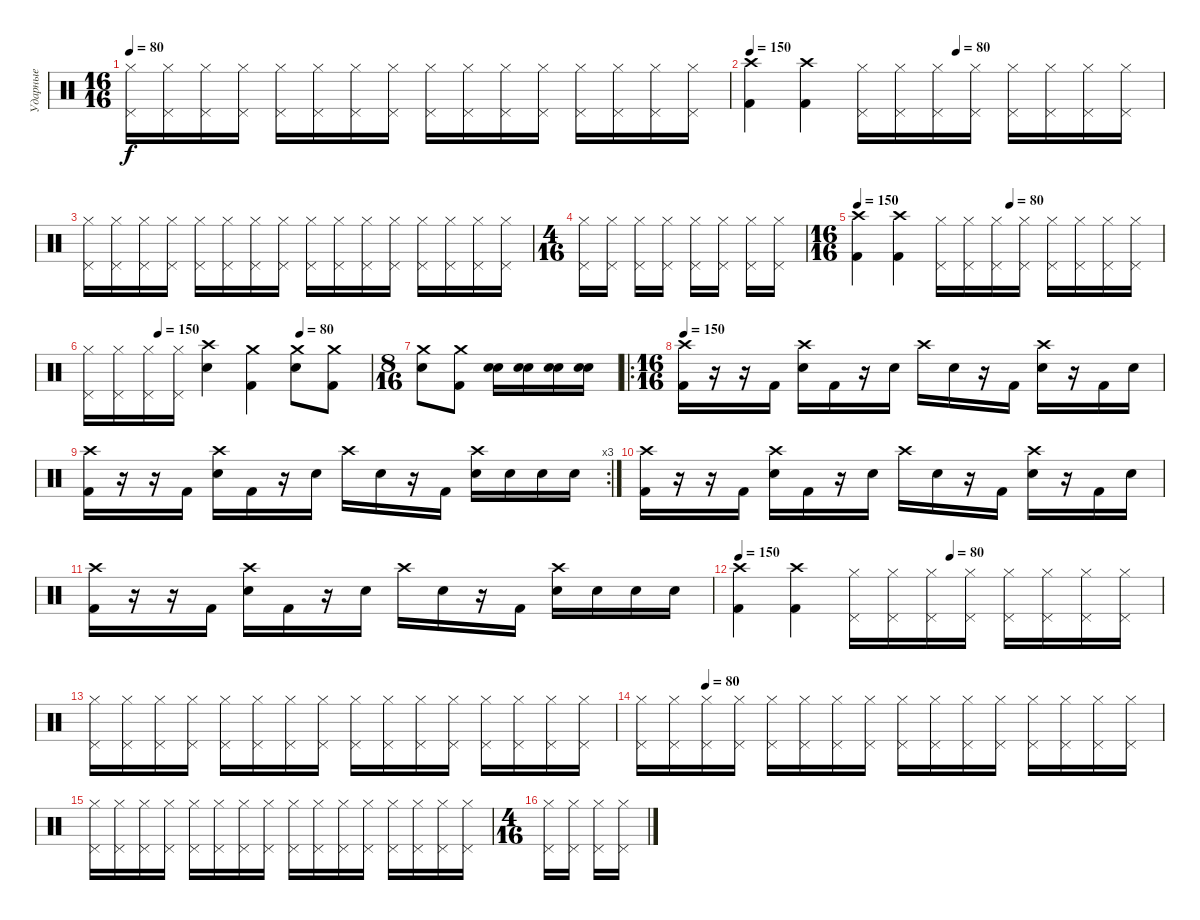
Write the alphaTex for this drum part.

\track ("Ударные" "Ударные") {instrument percussion}
\staff {score}
\articulation defaults
\ts (16 16)
\tempo 80
\clef neutral
\ks c
("Hi-Hat (closed)" "Pedal Hi-Hat (hit)").16{dy f} ("Hi-Hat (closed)" "Pedal Hi-Hat (hit)").16 ("Hi-Hat (closed)" "Pedal Hi-Hat (hit)").16 ("Hi-Hat (closed)" "Pedal Hi-Hat (hit)").16 ("Hi-Hat (closed)" "Pedal Hi-Hat (hit)").16 ("Hi-Hat (closed)" "Pedal Hi-Hat (hit)").16 ("Hi-Hat (closed)" "Pedal Hi-Hat (hit)").16 ("Hi-Hat (closed)" "Pedal Hi-Hat (hit)").16 ("Hi-Hat (closed)" "Pedal Hi-Hat (hit)").16 ("Hi-Hat (closed)" "Pedal Hi-Hat (hit)").16 ("Hi-Hat (closed)" "Pedal Hi-Hat (hit)").16 ("Hi-Hat (closed)" "Pedal Hi-Hat (hit)").16 ("Hi-Hat (closed)" "Pedal Hi-Hat (hit)").16 ("Hi-Hat (closed)" "Pedal Hi-Hat (hit)").16 ("Hi-Hat (closed)" "Pedal Hi-Hat (hit)").16 ("Hi-Hat (closed)" "Pedal Hi-Hat (hit)").16 |
\tempo 150
\tempo (80 0.5)
("Crash high (hit)" "Kick (hit) 2").4 ("Crash high (hit)" "Kick (hit) 2").4 ("Hi-Hat (closed)" "Pedal Hi-Hat (hit)").16 ("Hi-Hat (closed)" "Pedal Hi-Hat (hit)").16 ("Hi-Hat (closed)" "Pedal Hi-Hat (hit)").16 ("Hi-Hat (closed)" "Pedal Hi-Hat (hit)").16 ("Hi-Hat (closed)" "Pedal Hi-Hat (hit)").16 ("Hi-Hat (closed)" "Pedal Hi-Hat (hit)").16 ("Hi-Hat (closed)" "Pedal Hi-Hat (hit)").16 ("Hi-Hat (closed)" "Pedal Hi-Hat (hit)").16 |
("Hi-Hat (closed)" "Pedal Hi-Hat (hit)").16 ("Hi-Hat (closed)" "Pedal Hi-Hat (hit)").16 ("Hi-Hat (closed)" "Pedal Hi-Hat (hit)").16 ("Hi-Hat (closed)" "Pedal Hi-Hat (hit)").16 ("Hi-Hat (closed)" "Pedal Hi-Hat (hit)").16 ("Hi-Hat (closed)" "Pedal Hi-Hat (hit)").16 ("Hi-Hat (closed)" "Pedal Hi-Hat (hit)").16 ("Hi-Hat (closed)" "Pedal Hi-Hat (hit)").16 ("Hi-Hat (closed)" "Pedal Hi-Hat (hit)").16 ("Hi-Hat (closed)" "Pedal Hi-Hat (hit)").16 ("Hi-Hat (closed)" "Pedal Hi-Hat (hit)").16 ("Hi-Hat (closed)" "Pedal Hi-Hat (hit)").16 ("Hi-Hat (closed)" "Pedal Hi-Hat (hit)").16 ("Hi-Hat (closed)" "Pedal Hi-Hat (hit)").16 ("Hi-Hat (closed)" "Pedal Hi-Hat (hit)").16 ("Hi-Hat (closed)" "Pedal Hi-Hat (hit)").16 |
\ts (4 16)
("Hi-Hat (closed)" "Pedal Hi-Hat (hit)").16 ("Hi-Hat (closed)" "Pedal Hi-Hat (hit)").16 ("Hi-Hat (closed)" "Pedal Hi-Hat (hit)").16 ("Hi-Hat (closed)" "Pedal Hi-Hat (hit)").16 ("Hi-Hat (closed)" "Pedal Hi-Hat (hit)").16 ("Hi-Hat (closed)" "Pedal Hi-Hat (hit)").16 ("Hi-Hat (closed)" "Pedal Hi-Hat (hit)").16 ("Hi-Hat (closed)" "Pedal Hi-Hat (hit)").16 |
\ts (16 16)
\tempo 150
\tempo (80 0.5)
("Crash high (hit)" "Kick (hit) 2").4 ("Crash high (hit)" "Kick (hit) 2").4 ("Hi-Hat (closed)" "Pedal Hi-Hat (hit)").16 ("Hi-Hat (closed)" "Pedal Hi-Hat (hit)").16 ("Hi-Hat (closed)" "Pedal Hi-Hat (hit)").16 ("Hi-Hat (closed)" "Pedal Hi-Hat (hit)").16 ("Hi-Hat (closed)" "Pedal Hi-Hat (hit)").16 ("Hi-Hat (closed)" "Pedal Hi-Hat (hit)").16 ("Hi-Hat (closed)" "Pedal Hi-Hat (hit)").16 ("Hi-Hat (closed)" "Pedal Hi-Hat (hit)").16 |
\tempo (150 0.25)
\tempo (80 0.75)
("Hi-Hat (closed)" "Pedal Hi-Hat (hit)").16 ("Hi-Hat (closed)" "Pedal Hi-Hat (hit)").16 ("Hi-Hat (closed)" "Pedal Hi-Hat (hit)").16 ("Hi-Hat (closed)" "Pedal Hi-Hat (hit)").16 ("Crash high (hit)" "Snare (hit) 2").4 ("Crash medium (hit)" "Kick (hit) 2").4 ("Electric Snare (hit)" "Crash medium (hit)").8 ("Kick (hit) 2" "Crash medium (hit)").8 |
\ts (8 16)
("Crash medium (hit)" "Electric Snare (hit)").8 ("Kick (hit) 2" "Crash medium (hit)").8 ("Snare (hit) 2" "Electric Snare (hit)").16 ("Electric Snare (hit)" "Snare (hit) 2").16 ("Electric Snare (hit)" "Snare (hit) 2").16 ("Snare (hit) 2" "Electric Snare (hit)").16 |
\ro
\ts (16 16)
\tempo 150
("Crash high (hit)" "Kick (hit) 2").16 r.16 r.16 "Kick (hit) 2".16 ("Crash high (hit)" "Electric Snare (hit)").16 "Kick (hit) 2".16 r.16 "Electric Snare (hit)".16 "Crash high (hit)".16 "Electric Snare (hit)".16 r.16 "Kick (hit) 2".16 ("Crash high (hit)" "Electric Snare (hit)").16 r.16 "Kick (hit) 2".16 "Electric Snare (hit)".16 |
\rc 3
("Crash high (hit)" "Kick (hit) 2").16 r.16 r.16 "Kick (hit) 2".16 ("Crash high (hit)" "Electric Snare (hit)").16 "Kick (hit) 2".16 r.16 "Electric Snare (hit)".16 "Crash high (hit)".16 "Electric Snare (hit)".16 r.16 "Kick (hit) 2".16 ("Crash high (hit)" "Electric Snare (hit)").16 "Electric Snare (hit)".16 "Electric Snare (hit)".16 "Electric Snare (hit)".16 |
("Crash high (hit)" "Kick (hit) 2").16 r.16 r.16 "Kick (hit) 2".16 ("Crash high (hit)" "Electric Snare (hit)").16 "Kick (hit) 2".16 r.16 "Electric Snare (hit)".16 "Crash high (hit)".16 "Electric Snare (hit)".16 r.16 "Kick (hit) 2".16 ("Crash high (hit)" "Electric Snare (hit)").16 r.16 "Kick (hit) 2".16 "Electric Snare (hit)".16 |
("Crash high (hit)" "Kick (hit) 2").16 r.16 r.16 "Kick (hit) 2".16 ("Crash high (hit)" "Electric Snare (hit)").16 "Kick (hit) 2".16 r.16 "Electric Snare (hit)".16 "Crash high (hit)".16 "Electric Snare (hit)".16 r.16 "Kick (hit) 2".16 ("Crash high (hit)" "Electric Snare (hit)").16 "Electric Snare (hit)".16 "Electric Snare (hit)".16 "Electric Snare (hit)".16 |
\tempo 150
\tempo (80 0.5)
("Crash high (hit)" "Kick (hit) 2").4 ("Crash high (hit)" "Kick (hit) 2").4 ("Hi-Hat (closed)" "Pedal Hi-Hat (hit)").16 ("Hi-Hat (closed)" "Pedal Hi-Hat (hit)").16 ("Hi-Hat (closed)" "Pedal Hi-Hat (hit)").16 ("Hi-Hat (closed)" "Pedal Hi-Hat (hit)").16 ("Hi-Hat (closed)" "Pedal Hi-Hat (hit)").16 ("Hi-Hat (closed)" "Pedal Hi-Hat (hit)").16 ("Hi-Hat (closed)" "Pedal Hi-Hat (hit)").16 ("Hi-Hat (closed)" "Pedal Hi-Hat (hit)").16 |
("Hi-Hat (closed)" "Pedal Hi-Hat (hit)").16 ("Hi-Hat (closed)" "Pedal Hi-Hat (hit)").16 ("Hi-Hat (closed)" "Pedal Hi-Hat (hit)").16 ("Hi-Hat (closed)" "Pedal Hi-Hat (hit)").16 ("Hi-Hat (closed)" "Pedal Hi-Hat (hit)").16 ("Hi-Hat (closed)" "Pedal Hi-Hat (hit)").16 ("Hi-Hat (closed)" "Pedal Hi-Hat (hit)").16 ("Hi-Hat (closed)" "Pedal Hi-Hat (hit)").16 ("Hi-Hat (closed)" "Pedal Hi-Hat (hit)").16 ("Hi-Hat (closed)" "Pedal Hi-Hat (hit)").16 ("Hi-Hat (closed)" "Pedal Hi-Hat (hit)").16 ("Hi-Hat (closed)" "Pedal Hi-Hat (hit)").16 ("Hi-Hat (closed)" "Pedal Hi-Hat (hit)").16 ("Hi-Hat (closed)" "Pedal Hi-Hat (hit)").16 ("Hi-Hat (closed)" "Pedal Hi-Hat (hit)").16 ("Hi-Hat (closed)" "Pedal Hi-Hat (hit)").16 |
\tempo (80 0.125)
("Hi-Hat (closed)" "Pedal Hi-Hat (hit)").16 ("Hi-Hat (closed)" "Pedal Hi-Hat (hit)").16 ("Hi-Hat (closed)" "Pedal Hi-Hat (hit)").16 ("Hi-Hat (closed)" "Pedal Hi-Hat (hit)").16 ("Hi-Hat (closed)" "Pedal Hi-Hat (hit)").16 ("Hi-Hat (closed)" "Pedal Hi-Hat (hit)").16 ("Hi-Hat (closed)" "Pedal Hi-Hat (hit)").16 ("Hi-Hat (closed)" "Pedal Hi-Hat (hit)").16 ("Hi-Hat (closed)" "Pedal Hi-Hat (hit)").16 ("Hi-Hat (closed)" "Pedal Hi-Hat (hit)").16 ("Hi-Hat (closed)" "Pedal Hi-Hat (hit)").16 ("Hi-Hat (closed)" "Pedal Hi-Hat (hit)").16 ("Hi-Hat (closed)" "Pedal Hi-Hat (hit)").16 ("Hi-Hat (closed)" "Pedal Hi-Hat (hit)").16 ("Hi-Hat (closed)" "Pedal Hi-Hat (hit)").16 ("Hi-Hat (closed)" "Pedal Hi-Hat (hit)").16 |
("Hi-Hat (closed)" "Pedal Hi-Hat (hit)").16 ("Hi-Hat (closed)" "Pedal Hi-Hat (hit)").16 ("Hi-Hat (closed)" "Pedal Hi-Hat (hit)").16 ("Hi-Hat (closed)" "Pedal Hi-Hat (hit)").16 ("Hi-Hat (closed)" "Pedal Hi-Hat (hit)").16 ("Hi-Hat (closed)" "Pedal Hi-Hat (hit)").16 ("Hi-Hat (closed)" "Pedal Hi-Hat (hit)").16 ("Hi-Hat (closed)" "Pedal Hi-Hat (hit)").16 ("Hi-Hat (closed)" "Pedal Hi-Hat (hit)").16 ("Hi-Hat (closed)" "Pedal Hi-Hat (hit)").16 ("Hi-Hat (closed)" "Pedal Hi-Hat (hit)").16 ("Hi-Hat (closed)" "Pedal Hi-Hat (hit)").16 ("Hi-Hat (closed)" "Pedal Hi-Hat (hit)").16 ("Hi-Hat (closed)" "Pedal Hi-Hat (hit)").16 ("Hi-Hat (closed)" "Pedal Hi-Hat (hit)").16 ("Hi-Hat (closed)" "Pedal Hi-Hat (hit)").16 |
\ts (4 16)
("Hi-Hat (closed)" "Pedal Hi-Hat (hit)").16 ("Hi-Hat (closed)" "Pedal Hi-Hat (hit)").16 ("Hi-Hat (closed)" "Pedal Hi-Hat (hit)").16 ("Hi-Hat (closed)" "Pedal Hi-Hat (hit)").16
